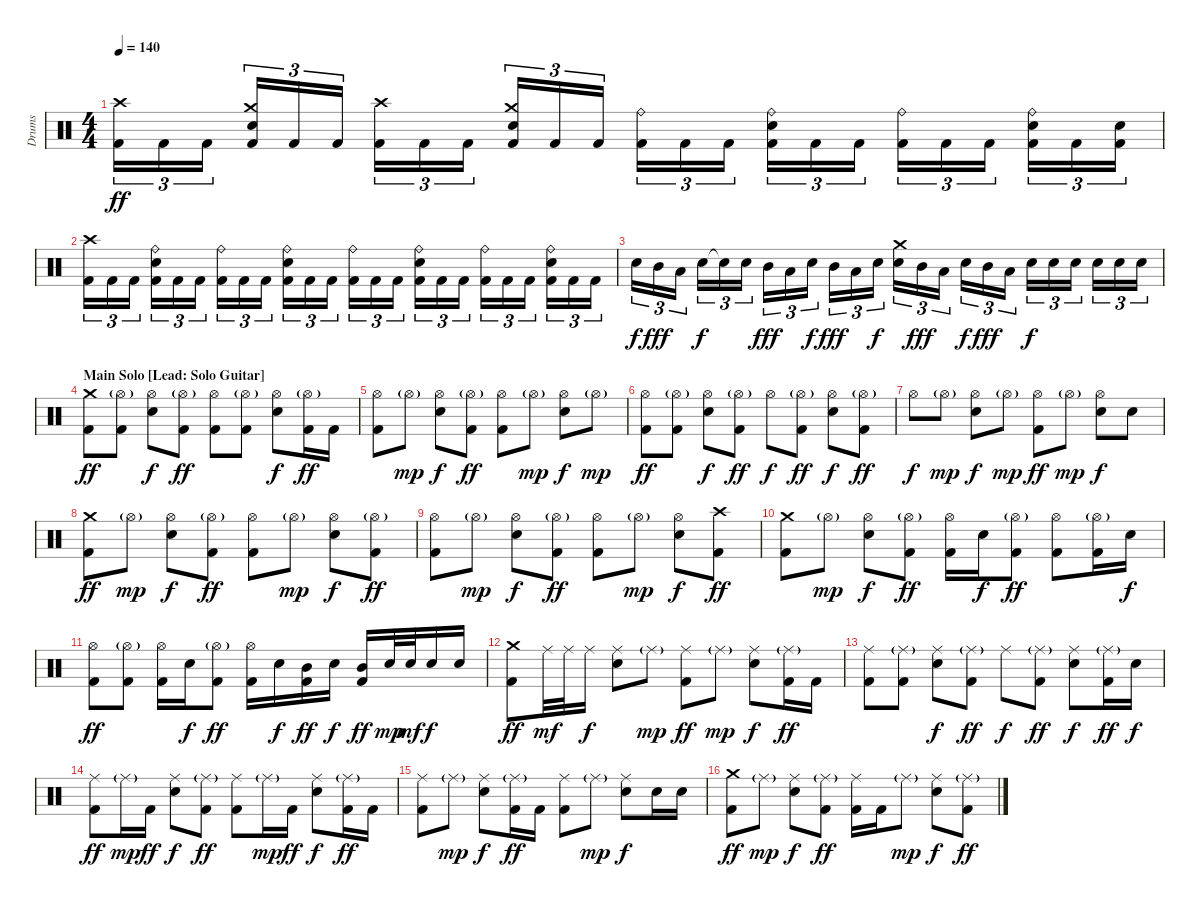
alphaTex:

\track ("Drums" "Drums") {instrument percussion}
\staff {score}
\articulation defaults
\ts (4 4)
\tempo 140
\clef neutral
\ks c
("Crash high (hit)" "Kick (hit) 2").16{tu (3 2) dy ff} "Kick (hit) 2".16{tu (3 2)} "Kick (hit) 2".16{tu (3 2)} ("Crash medium (hit)" "Snare (hit) 2" "Kick (hit) 2").16{tu (3 2)} "Kick (hit) 2".16{tu (3 2)} "Kick (hit) 2".16{tu (3 2)} ("Crash high (hit)" "Kick (hit) 2").16{tu (3 2)} "Kick (hit) 2".16{tu (3 2)} "Kick (hit) 2".16{tu (3 2)} ("Crash medium (hit)" "Snare (hit) 2" "Kick (hit) 2").16{tu (3 2)} "Kick (hit) 2".16{tu (3 2)} "Kick (hit) 2".16{tu (3 2)} ("Ride (bell)" "Kick (hit) 2").16{tu (3 2)} "Kick (hit) 2".16{tu (3 2)} "Kick (hit) 2".16{tu (3 2)} ("Ride (bell)" "Snare (hit) 2" "Kick (hit) 2").16{tu (3 2)} "Kick (hit) 2".16{tu (3 2)} "Kick (hit) 2".16{tu (3 2)} ("Ride (bell)" "Kick (hit) 2").16{tu (3 2)} "Kick (hit) 2".16{tu (3 2)} "Kick (hit) 2".16{tu (3 2)} ("Ride (bell)" "Snare (hit) 2" "Kick (hit) 2").16{tu (3 2)} "Kick (hit) 2".16{tu (3 2)} ("Snare (hit) 2" "Kick (hit) 2").16{tu (3 2)} |
("Crash high (hit)" "Kick (hit) 2").16{tu (3 2)} "Kick (hit) 2".16{tu (3 2)} "Kick (hit) 2".16{tu (3 2)} ("Ride (bell)" "Snare (hit) 2" "Kick (hit) 2").16{tu (3 2)} "Kick (hit) 2".16{tu (3 2)} "Kick (hit) 2".16{tu (3 2)} ("Ride (bell)" "Kick (hit) 2").16{tu (3 2)} "Kick (hit) 2".16{tu (3 2)} "Kick (hit) 2".16{tu (3 2)} ("Ride (bell)" "Snare (hit) 2" "Kick (hit) 2").16{tu (3 2)} "Kick (hit) 2".16{tu (3 2)} "Kick (hit) 2".16{tu (3 2)} ("Ride (bell)" "Kick (hit) 2").16{tu (3 2)} "Kick (hit) 2".16{tu (3 2)} "Kick (hit) 2".16{tu (3 2)} ("Ride (bell)" "Snare (hit) 2" "Kick (hit) 2").16{tu (3 2)} "Kick (hit) 2".16{tu (3 2)} "Kick (hit) 2".16{tu (3 2)} ("Ride (bell)" "Kick (hit) 2").16{tu (3 2)} "Kick (hit) 2".16{tu (3 2)} "Kick (hit) 2".16{tu (3 2)} ("Ride (bell)" "Snare (hit) 2" "Kick (hit) 2").16{tu (3 2)} "Kick (hit) 2".16{tu (3 2)} "Kick (hit) 2".16{tu (3 2)} |
"Snare (hit) 2".16{tu (3 2) dy f} "Mid Tom (hit)".16{tu (3 2) dy fff} "Low Tom (hit)".16{tu (3 2)} "Snare (hit) 2".16{tu (3 2) dy f} "Snare (hit)"{t}.16{tu (3 2)} "Snare (hit) 2".16{tu (3 2)} "Mid Tom (hit)".16{tu (3 2) dy fff} "Low Tom (hit)".16{tu (3 2)} "Snare (hit) 2".16{tu (3 2) dy f} "Mid Tom (hit)".16{tu (3 2) dy fff} "Low Tom (hit)".16{tu (3 2)} "Snare (hit) 2".16{tu (3 2) dy f} ("Crash medium (hit)" "Snare (hit) 2").16{tu (3 2)} "Mid Tom (hit)".16{tu (3 2) dy fff} "Low Tom (hit)".16{tu (3 2)} "Snare (hit) 2".16{tu (3 2) dy f} "Mid Tom (hit)".16{tu (3 2) dy fff} "Low Tom (hit)".16{tu (3 2)} "Snare (hit) 2".16{tu (3 2) dy f} "Snare (hit) 2".16{tu (3 2)} "Snare (hit) 2".16{tu (3 2)} "Snare (hit) 2".16{tu (3 2)} "Snare (hit) 2".16{tu (3 2)} "Snare (hit) 2".16{tu (3 2)} |
\section ("" "Main Solo [Lead: Solo Guitar]")
("Crash medium (hit)" "Kick (hit) 2").8{dy ff} ("Hi-Hat (open)"{g} "Kick (hit) 2").8 ("Hi-Hat (open)" "Snare (hit) 2").8{dy f} ("Hi-Hat (open)"{g} "Kick (hit) 2").8{dy ff} ("Hi-Hat (open)" "Kick (hit) 2").8 ("Hi-Hat (open)"{g} "Kick (hit) 2").8 ("Hi-Hat (open)" "Snare (hit) 2").8{dy f} ("Hi-Hat (open)"{g} "Kick (hit) 2").16{dy ff} "Kick (hit) 2".16 |
("Hi-Hat (open)" "Kick (hit) 2").8 "Hi-Hat (open)"{g}.8{dy mp} ("Hi-Hat (open)" "Snare (hit) 2").8{dy f} ("Hi-Hat (open)"{g} "Kick (hit) 2").8{dy ff} ("Hi-Hat (open)" "Kick (hit) 2").8 "Hi-Hat (open)"{g}.8{dy mp} ("Hi-Hat (open)" "Snare (hit) 2").8{dy f} "Hi-Hat (open)"{g}.8{dy mp} |
("Hi-Hat (open)" "Kick (hit) 2").8{dy ff} ("Hi-Hat (open)"{g} "Kick (hit) 2").8 ("Hi-Hat (open)" "Snare (hit) 2").8{dy f} ("Hi-Hat (open)"{g} "Kick (hit) 2").8{dy ff} "Hi-Hat (open)".8{dy f} ("Hi-Hat (open)"{g} "Kick (hit) 2").8{dy ff} ("Hi-Hat (open)" "Snare (hit) 2").8{dy f} ("Hi-Hat (open)"{g} "Kick (hit) 2").8{dy ff} |
"Hi-Hat (open)".8{dy f} "Hi-Hat (open)"{g}.8{dy mp} ("Hi-Hat (open)" "Snare (hit) 2").8{dy f} "Hi-Hat (open)"{g}.8{dy mp} ("Hi-Hat (open)" "Kick (hit) 2").8{dy ff} "Hi-Hat (open)"{g}.8{dy mp} ("Hi-Hat (open)" "Snare (hit) 2").8{dy f} "Snare (hit) 2".8 |
("Crash medium (hit)" "Kick (hit) 2").8{dy ff} "Hi-Hat (open)"{g}.8{dy mp} ("Hi-Hat (open)" "Snare (hit) 2").8{dy f} ("Hi-Hat (open)"{g} "Kick (hit) 2").8{dy ff} ("Hi-Hat (open)" "Kick (hit) 2").8 "Hi-Hat (open)"{g}.8{dy mp} ("Hi-Hat (open)" "Snare (hit) 2").8{dy f} ("Hi-Hat (open)"{g} "Kick (hit) 2").8{dy ff} |
("Hi-Hat (open)" "Kick (hit) 2").8 "Hi-Hat (open)"{g}.8{dy mp} ("Hi-Hat (open)" "Snare (hit) 2").8{dy f} ("Hi-Hat (open)"{g} "Kick (hit) 2").8{dy ff} ("Hi-Hat (open)" "Kick (hit) 2").8 "Hi-Hat (open)"{g}.8{dy mp} ("Hi-Hat (open)" "Snare (hit) 2").8{dy f} ("Crash high (hit)" "Kick (hit) 2").8{dy ff} |
("Crash medium (hit)" "Kick (hit) 2").8 "Hi-Hat (open)"{g}.8{dy mp} ("Hi-Hat (open)" "Snare (hit) 2").8{dy f} ("Hi-Hat (open)"{g} "Kick (hit) 2").8{dy ff} ("Hi-Hat (open)" "Kick (hit) 2").16 "Snare (hit) 2".16{dy f} ("Hi-Hat (open)"{g} "Kick (hit) 2").8{dy ff} ("Hi-Hat (open)" "Kick (hit) 2").8 ("Hi-Hat (open)"{g} "Kick (hit) 2").16 "Snare (hit) 2".16{dy f} |
("Hi-Hat (open)" "Kick (hit) 2").8{dy ff} ("Hi-Hat (open)"{g} "Kick (hit) 2").8 ("Hi-Hat (open)" "Kick (hit) 2").16 "Snare (hit) 2".16{dy f} ("Hi-Hat (open)"{g} "Kick (hit) 2").8{dy ff} ("Hi-Hat (open)" "Kick (hit) 2").16 "Snare (hit) 2".16{dy f} ("Mid Tom (hit)" "Kick (hit) 2").16{dy ff} "Snare (hit) 2".16{dy f} ("Mid Tom (hit)" "Kick (hit) 2").16{dy ff} "Snare (hit) 2".32{dy mp} "Snare (hit) 2".32{dy mf} "Snare (hit) 2".16{dy f} "Snare (hit) 2".16 |
("Crash medium (hit)" "Kick (hit) 2").8{dy ff} "Ride (middle)".32{dy mf} "Ride (middle)".32 "Ride (middle)".16{dy f} ("Ride (middle)" "Snare (hit) 2").8 "Ride (middle)"{g}.8{dy mp} ("Ride (middle)" "Kick (hit) 2").8{dy ff} "Ride (middle)"{g}.8{dy mp} ("Ride (middle)" "Snare (hit) 2").8{dy f} ("Ride (middle)"{g} "Kick (hit) 2").16{dy ff} "Kick (hit) 2".16 |
("Ride (middle)" "Kick (hit) 2").8 ("Ride (middle)"{g} "Kick (hit) 2").8 ("Ride (middle)" "Snare (hit) 2").8{dy f} ("Ride (middle)"{g} "Kick (hit) 2").8{dy ff} "Ride (middle)".8{dy f} ("Ride (middle)"{g} "Kick (hit) 2").8{dy ff} ("Ride (middle)" "Snare (hit) 2").8{dy f} ("Ride (middle)"{g} "Kick (hit) 2").16{dy ff} "Snare (hit) 2".16{dy f} |
("Ride (middle)" "Kick (hit) 2").8{dy ff} "Ride (middle)"{g}.16{dy mp} "Kick (hit) 2".16{dy ff} ("Ride (middle)" "Snare (hit) 2").8{dy f} ("Ride (middle)"{g} "Kick (hit) 2").8{dy ff} ("Ride (middle)" "Kick (hit) 2").8 "Ride (middle)"{g}.16{dy mp} "Kick (hit) 2".16{dy ff} ("Ride (middle)" "Snare (hit) 2").8{dy f} ("Ride (middle)"{g} "Kick (hit) 2").16{dy ff} "Kick (hit) 2".16 |
("Ride (middle)" "Kick (hit) 2").8 "Ride (middle)"{g}.8{dy mp} ("Ride (middle)" "Snare (hit) 2").8{dy f} ("Ride (middle)"{g} "Kick (hit) 2").16{dy ff} "Kick (hit) 2".16 ("Ride (middle)" "Kick (hit) 2").8 "Ride (middle)"{g}.8{dy mp} ("Ride (middle)" "Snare (hit) 2").8{dy f} "Snare (hit) 2".16 "Snare (hit) 2".16 |
("Crash medium (hit)" "Kick (hit) 2").8{dy ff} "Ride (middle)"{g}.8{dy mp} ("Ride (middle)" "Snare (hit) 2").8{dy f} ("Ride (middle)"{g} "Kick (hit) 2").8{dy ff} ("Ride (middle)" "Kick (hit) 2").16 "Kick (hit) 2".16 "Ride (middle)"{g}.8{dy mp} ("Ride (middle)" "Snare (hit) 2").8{dy f} ("Ride (middle)"{g} "Kick (hit) 2").8{dy ff}
